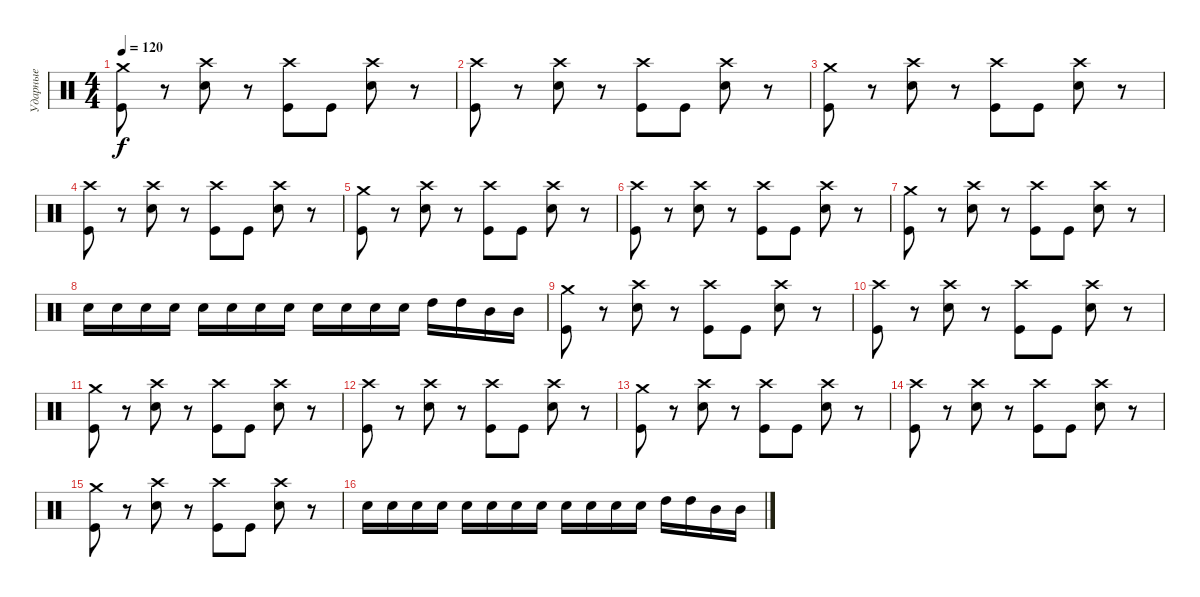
\track ("Ударные" "Ударные") {instrument percussion}
\staff {score}
\articulation defaults
\ts (4 4)
\tempo 120
\clef neutral
\ks c
("Crash medium (hit)" "Kick (hit)").8{dy f} r.8 ("Crash high (hit)" "Electric Snare (hit)").8 r.8 ("Crash high (hit)" "Kick (hit)").8 "Kick (hit)".8 ("Crash high (hit)" "Electric Snare (hit)").8 r.8 |
("Crash high (hit)" "Kick (hit)").8 r.8 ("Crash high (hit)" "Electric Snare (hit)").8 r.8 ("Crash high (hit)" "Kick (hit)").8 "Kick (hit)".8 ("Crash high (hit)" "Electric Snare (hit)").8 r.8 |
("Crash medium (hit)" "Kick (hit)").8 r.8 ("Crash high (hit)" "Electric Snare (hit)").8 r.8 ("Crash high (hit)" "Kick (hit)").8 "Kick (hit)".8 ("Crash high (hit)" "Electric Snare (hit)").8 r.8 |
("Crash high (hit)" "Kick (hit)").8 r.8 ("Crash high (hit)" "Electric Snare (hit)").8 r.8 ("Crash high (hit)" "Kick (hit)").8 "Kick (hit)".8 ("Crash high (hit)" "Electric Snare (hit)").8 r.8 |
("Crash medium (hit)" "Kick (hit)").8 r.8 ("Crash high (hit)" "Electric Snare (hit)").8 r.8 ("Crash high (hit)" "Kick (hit)").8 "Kick (hit)".8 ("Crash high (hit)" "Electric Snare (hit)").8 r.8 |
("Crash high (hit)" "Kick (hit)").8 r.8 ("Crash high (hit)" "Electric Snare (hit)").8 r.8 ("Crash high (hit)" "Kick (hit)").8 "Kick (hit)".8 ("Crash high (hit)" "Electric Snare (hit)").8 r.8 |
("Crash medium (hit)" "Kick (hit)").8 r.8 ("Crash high (hit)" "Electric Snare (hit)").8 r.8 ("Crash high (hit)" "Kick (hit)").8 "Kick (hit)".8 ("Crash high (hit)" "Electric Snare (hit)").8 r.8 |
"Electric Snare (hit)".16 "Electric Snare (hit)".16 "Electric Snare (hit)".16 "Electric Snare (hit)".16 "Electric Snare (hit)".16 "Electric Snare (hit)".16 "Electric Snare (hit)".16 "Electric Snare (hit)".16 "Electric Snare (hit)".16 "Electric Snare (hit)".16 "Electric Snare (hit)".16 "Electric Snare (hit)".16 "High Tom (hit)".16 "High Tom (hit)".16 "Mid Tom (hit)".16 "Mid Tom (hit)".16 |
("Crash medium (hit)" "Kick (hit)").8 r.8 ("Crash high (hit)" "Electric Snare (hit)").8 r.8 ("Crash high (hit)" "Kick (hit)").8 "Kick (hit)".8 ("Crash high (hit)" "Electric Snare (hit)").8 r.8 |
("Crash high (hit)" "Kick (hit)").8 r.8 ("Crash high (hit)" "Electric Snare (hit)").8 r.8 ("Crash high (hit)" "Kick (hit)").8 "Kick (hit)".8 ("Crash high (hit)" "Electric Snare (hit)").8 r.8 |
("Crash medium (hit)" "Kick (hit)").8 r.8 ("Crash high (hit)" "Electric Snare (hit)").8 r.8 ("Crash high (hit)" "Kick (hit)").8 "Kick (hit)".8 ("Crash high (hit)" "Electric Snare (hit)").8 r.8 |
("Crash high (hit)" "Kick (hit)").8 r.8 ("Crash high (hit)" "Electric Snare (hit)").8 r.8 ("Crash high (hit)" "Kick (hit)").8 "Kick (hit)".8 ("Crash high (hit)" "Electric Snare (hit)").8 r.8 |
("Crash medium (hit)" "Kick (hit)").8 r.8 ("Crash high (hit)" "Electric Snare (hit)").8 r.8 ("Crash high (hit)" "Kick (hit)").8 "Kick (hit)".8 ("Crash high (hit)" "Electric Snare (hit)").8 r.8 |
("Crash high (hit)" "Kick (hit)").8 r.8 ("Crash high (hit)" "Electric Snare (hit)").8 r.8 ("Crash high (hit)" "Kick (hit)").8 "Kick (hit)".8 ("Crash high (hit)" "Electric Snare (hit)").8 r.8 |
("Crash medium (hit)" "Kick (hit)").8 r.8 ("Crash high (hit)" "Electric Snare (hit)").8 r.8 ("Crash high (hit)" "Kick (hit)").8 "Kick (hit)".8 ("Crash high (hit)" "Electric Snare (hit)").8 r.8 |
"Electric Snare (hit)".16 "Electric Snare (hit)".16 "Electric Snare (hit)".16 "Electric Snare (hit)".16 "Electric Snare (hit)".16 "Electric Snare (hit)".16 "Electric Snare (hit)".16 "Electric Snare (hit)".16 "Electric Snare (hit)".16 "Electric Snare (hit)".16 "Electric Snare (hit)".16 "Electric Snare (hit)".16 "High Tom (hit)".16 "High Tom (hit)".16 "Mid Tom (hit)".16 "Mid Tom (hit)".16
